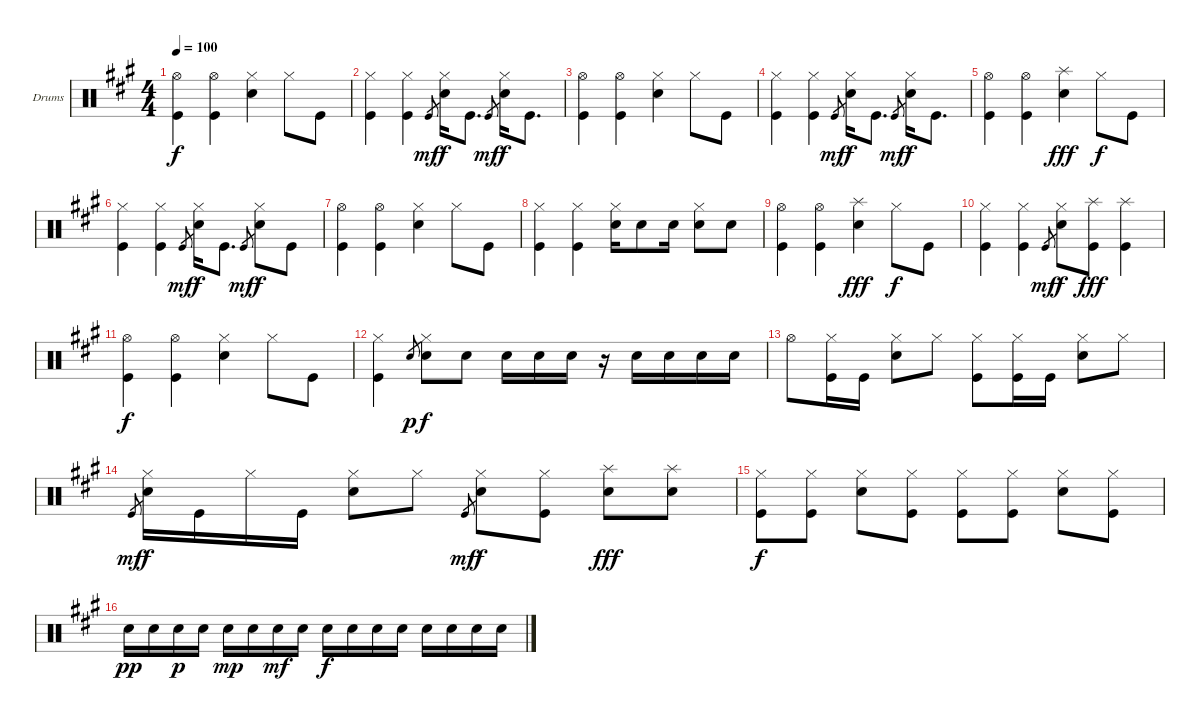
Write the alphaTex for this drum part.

\bracketExtendMode groupsimilarinstruments
\firstSystemTrackNameOrientation horizontal
\otherSystemsTrackNameOrientation horizontal
\track ("Drumkit" "Drums") {instrument percussion}
\staff {score}
\articulation defaults
\ts (4 4)
\tempo 100
\clef neutral
\scale
1.05801
\ks a
("Hi-Hat (open)" "Kick (hit)").4{dy f} ("Hi-Hat (open)" "Kick (hit)").4 ("Hi-Hat (closed)" "Snare (hit) 2").4 "Hi-Hat (closed)".8 "Kick (hit)".8 |
\scale
0.941992 ("Hi-Hat (closed)" "Kick (hit)").4 ("Hi-Hat (closed)" "Kick (hit)").4 "Kick (hit)".8{gr dy mf} ("Hi-Hat (closed)" "Snare (hit) 2").16{dy f} "Kick (hit)".8{d} "Kick (hit)".8{gr dy mf} ("Hi-Hat (closed)" "Snare (hit) 2").16{dy f} "Kick (hit)".8{d} |
\scale
1.05801 ("Hi-Hat (open)" "Kick (hit)").4 ("Hi-Hat (open)" "Kick (hit)").4 ("Hi-Hat (closed)" "Snare (hit) 2").4 "Hi-Hat (closed)".8 "Kick (hit)".8 |
\scale
0.941992 ("Hi-Hat (closed)" "Kick (hit)").4 ("Hi-Hat (closed)" "Kick (hit)").4 "Kick (hit)".8{gr dy mf} ("Hi-Hat (closed)" "Snare (hit) 2").16{dy f} "Kick (hit)".8{d} "Kick (hit)".8{gr dy mf} ("Hi-Hat (closed)" "Snare (hit) 2").16{dy f} "Kick (hit)".8{d} |
\scale
1.05801 ("Hi-Hat (open)" "Kick (hit)").4 ("Hi-Hat (open)" "Kick (hit)").4 ("Splash (hit)" "Snare (hit) 2").4{dy fff} "Hi-Hat (closed)".8{dy f} "Kick (hit)".8 |
\scale
0.941992 ("Hi-Hat (closed)" "Kick (hit)").4 ("Hi-Hat (closed)" "Kick (hit)").4 "Kick (hit)".8{gr dy mf} ("Hi-Hat (closed)" "Snare (hit) 2").16{dy f} "Kick (hit)".8{d} "Kick (hit)".8{gr dy mf} ("Hi-Hat (closed)" "Snare (hit) 2").8{dy f} "Kick (hit)".8 |
\scale
1.05801 ("Hi-Hat (open)" "Kick (hit)").4 ("Hi-Hat (open)" "Kick (hit)").4 ("Hi-Hat (closed)" "Snare (hit) 2").4 "Hi-Hat (closed)".8 "Kick (hit)".8 |
\scale
0.941992 ("Hi-Hat (closed)" "Kick (hit)").4 ("Hi-Hat (closed)" "Kick (hit)").4 ("Hi-Hat (closed)" "Snare (hit) 2").16 "Snare (hit) 2".8 "Snare (hit) 2".16 ("Hi-Hat (closed)" "Snare (hit) 2").8 "Snare (hit) 2".8 |
\scale
1.05801 ("Hi-Hat (open)" "Kick (hit)").4 ("Hi-Hat (open)" "Kick (hit)").4 ("Splash (hit)" "Snare (hit) 2").4{dy fff} "Hi-Hat (closed)".8{dy f} "Kick (hit)".8 |
\scale
0.941992 ("Hi-Hat (closed)" "Kick (hit)").4 ("Hi-Hat (closed)" "Kick (hit)").4 "Kick (hit)".8{gr dy mf} ("Hi-Hat (closed)" "Snare (hit) 2").8{dy f} ("Splash (hit)" "Kick (hit)").8{dy fff} ("Splash (hit)" "Kick (hit)").4 |
\scale
1.05801 ("Hi-Hat (open)" "Kick (hit)").4{dy f} ("Hi-Hat (open)" "Kick (hit)").4 ("Hi-Hat (closed)" "Snare (hit) 2").4 "Hi-Hat (closed)".8 "Kick (hit)".8 |
\scale
0.941992 ("Hi-Hat (closed)" "Kick (hit)").4 "Snare (hit) 2".8{gr dy p} ("Hi-Hat (closed)" "Snare (hit) 2").8{dy f} "Snare (hit) 2".8 "Snare (hit) 2".16 "Snare (hit) 2".16 "Snare (hit) 2".16 r.16 "Snare (hit) 2".16 "Snare (hit) 2".16 "Snare (hit) 2".16 "Snare (hit) 2".16 |
\scale
1.05801 "Hi-Hat (open)".8 ("Hi-Hat (closed)" "Kick (hit)").16 "Kick (hit)".16 ("Hi-Hat (closed)" "Snare (hit) 2").8 "Hi-Hat (closed)".8 ("Hi-Hat (closed)" "Kick (hit)").8 ("Hi-Hat (closed)" "Kick (hit)").16 "Kick (hit)".16 ("Hi-Hat (closed)" "Snare (hit) 2").8 "Hi-Hat (closed)".8 |
\scale
0.941992 "Kick (hit)".8{gr dy mf} ("Hi-Hat (closed)" "Snare (hit) 2").16{dy f} "Kick (hit)".16 "Hi-Hat (closed)".16 "Kick (hit)".16 ("Hi-Hat (closed)" "Snare (hit) 2").8 "Hi-Hat (closed)".8 "Kick (hit)".8{gr dy mf} ("Hi-Hat (closed)" "Snare (hit) 2").8{dy f} ("Hi-Hat (closed)" "Kick (hit)").8 ("Splash (hit)" "Snare (hit) 2").8{dy fff} ("Splash (hit)" "Snare (hit) 2").8 |
\scale
1.05801 ("Hi-Hat (closed)" "Kick (hit)").8{dy f} ("Hi-Hat (closed)" "Kick (hit)").8 ("Hi-Hat (closed)" "Snare (hit) 2").8 ("Hi-Hat (closed)" "Kick (hit)").8 ("Hi-Hat (closed)" "Kick (hit)").8 ("Hi-Hat (closed)" "Kick (hit)").8 ("Hi-Hat (closed)" "Snare (hit) 2").8 ("Hi-Hat (closed)" "Kick (hit)").8 |
\scale
0.941992 "Snare (hit) 2".16{dy pp} "Snare (hit) 2".16 "Snare (hit) 2".16{dy p} "Snare (hit) 2".16 "Snare (hit) 2".16{dy mp} "Snare (hit) 2".16 "Snare (hit) 2".16{dy mf} "Snare (hit) 2".16 "Snare (hit) 2".16{dy f} "Snare (hit) 2".16 "Snare (hit) 2".16 "Snare (hit) 2".16 "Snare (hit) 2".16 "Snare (hit) 2".16 "Snare (hit) 2".16 "Snare (hit) 2".16
